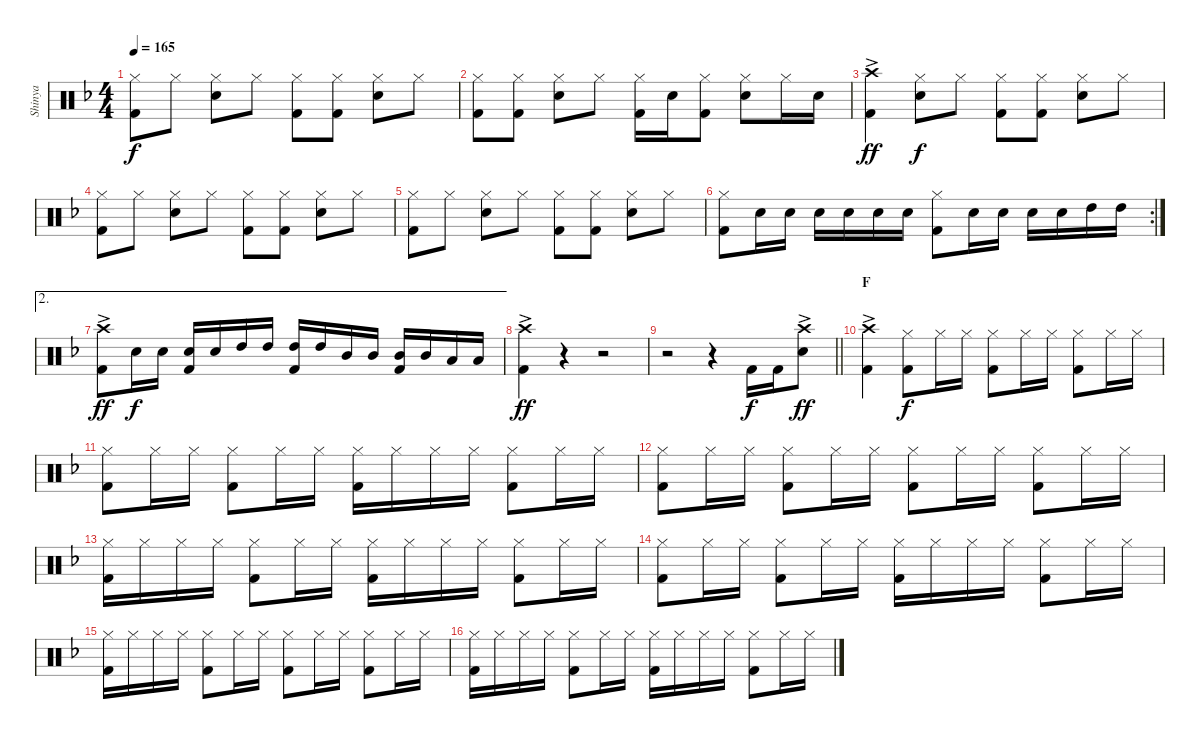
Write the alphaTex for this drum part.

\track ("Shinya" "Shinya") {instrument percussion}
\staff {score}
\articulation defaults
\ts (4 4)
\tempo 165
\clef neutral
\ks dminor
("Hi-Hat (closed)" "Kick (hit) 2").8{dy f} "Hi-Hat (closed)".8 ("Hi-Hat (closed)" "Snare (hit) 2").8 "Hi-Hat (closed)".8 ("Hi-Hat (closed)" "Kick (hit) 2").8 ("Hi-Hat (closed)" "Kick (hit) 2").8 ("Hi-Hat (closed)" "Snare (hit) 2").8 "Hi-Hat (closed)".8 |
("Hi-Hat (closed)" "Kick (hit) 2").8 ("Hi-Hat (closed)" "Kick (hit) 2").8 ("Hi-Hat (closed)" "Snare (hit) 2").8 "Hi-Hat (closed)".8 ("Hi-Hat (closed)" "Kick (hit) 2").16 "Snare (hit) 2".16 ("Hi-Hat (closed)" "Kick (hit) 2").8 ("Hi-Hat (closed)" "Snare (hit) 2").8 "Hi-Hat (closed)".16 "Snare (hit) 2".16 |
("Crash high (hit)"{ac} "Kick (hit) 2").4{dy ff} ("Hi-Hat (closed)" "Snare (hit) 2").8{dy f} "Hi-Hat (closed)".8 ("Hi-Hat (closed)" "Kick (hit) 2").8 ("Hi-Hat (closed)" "Kick (hit) 2").8 ("Hi-Hat (closed)" "Snare (hit) 2").8 "Hi-Hat (closed)".8 |
("Hi-Hat (closed)" "Kick (hit) 2").8 "Hi-Hat (closed)".8 ("Hi-Hat (closed)" "Snare (hit) 2").8 "Hi-Hat (closed)".8 ("Hi-Hat (closed)" "Kick (hit) 2").8 ("Hi-Hat (closed)" "Kick (hit) 2").8 ("Hi-Hat (closed)" "Snare (hit) 2").8 "Hi-Hat (closed)".8 |
("Hi-Hat (closed)" "Kick (hit) 2").8 "Hi-Hat (closed)".8 ("Hi-Hat (closed)" "Snare (hit) 2").8 "Hi-Hat (closed)".8 ("Hi-Hat (closed)" "Kick (hit) 2").8 ("Hi-Hat (closed)" "Kick (hit) 2").8 ("Hi-Hat (closed)" "Snare (hit) 2").8 "Hi-Hat (closed)".8 |
\rc 2
("Hi-Hat (closed)" "Kick (hit) 2").8 "Snare (hit) 2".16 "Snare (hit) 2".16 "Snare (hit) 2".16 "Snare (hit) 2".16 "Snare (hit) 2".16 "Snare (hit) 2".16 ("Hi-Hat (closed)" "Kick (hit) 2").8 "Snare (hit) 2".16 "Snare (hit) 2".16 "Snare (hit) 2".16 "Snare (hit) 2".16 "High Tom (hit)".16 "High Tom (hit)".16 |
\ae 2
("Crash high (hit)"{ac} "Kick (hit) 2").8{dy ff} "Snare (hit) 2".16{dy f} "Snare (hit) 2".16 ("Snare (hit) 2" "Kick (hit) 2").16 "Snare (hit) 2".16 "High Tom (hit)".16 "High Tom (hit)".16 ("High Tom (hit)" "Kick (hit) 2").16 "High Tom (hit)".16 "Mid Tom (hit)".16 "Mid Tom (hit)".16 ("Mid Tom (hit)" "Kick (hit) 2").16 "Mid Tom (hit)".16 "Low Tom (hit)".16 "Low Tom (hit)".16 |
("Crash high (hit)"{ac} "Kick (hit) 2").4{dy ff} r.4 r.2 |
\barLineRight lightlight
r.2 r.4 "Kick (hit) 2".16{dy f} "Kick (hit) 2".16 ("Crash high (hit)"{ac} "Snare (hit) 2").8{dy ff} |
\section ("" "F")
("Crash high (hit)"{ac} "Kick (hit) 2").4 ("Hi-Hat (closed)" "Kick (hit) 2").8{dy f} "Hi-Hat (closed)".16 "Hi-Hat (closed)".16 ("Hi-Hat (closed)" "Kick (hit) 2").8 "Hi-Hat (closed)".16 "Hi-Hat (closed)".16 ("Hi-Hat (closed)" "Kick (hit) 2").8 "Hi-Hat (closed)".16 "Hi-Hat (closed)".16 |
("Hi-Hat (closed)" "Kick (hit) 2").8 "Hi-Hat (closed)".16 "Hi-Hat (closed)".16 ("Hi-Hat (closed)" "Kick (hit) 2").8 "Hi-Hat (closed)".16 "Hi-Hat (closed)".16 ("Hi-Hat (closed)" "Kick (hit) 2").16 "Hi-Hat (closed)".16 "Hi-Hat (closed)".16 "Hi-Hat (closed)".16 ("Hi-Hat (closed)" "Kick (hit) 2").8 "Hi-Hat (closed)".16 "Hi-Hat (closed)".16 |
("Hi-Hat (closed)" "Kick (hit) 2").8 "Hi-Hat (closed)".16 "Hi-Hat (closed)".16 ("Hi-Hat (closed)" "Kick (hit) 2").8 "Hi-Hat (closed)".16 "Hi-Hat (closed)".16 ("Hi-Hat (closed)" "Kick (hit) 2").8 "Hi-Hat (closed)".16 "Hi-Hat (closed)".16 ("Hi-Hat (closed)" "Kick (hit) 2").8 "Hi-Hat (closed)".16 "Hi-Hat (closed)".16 |
("Hi-Hat (closed)" "Kick (hit) 2").16 "Hi-Hat (closed)".16 "Hi-Hat (closed)".16 "Hi-Hat (closed)".16 ("Hi-Hat (closed)" "Kick (hit) 2").8 "Hi-Hat (closed)".16 "Hi-Hat (closed)".16 ("Hi-Hat (closed)" "Kick (hit) 2").16 "Hi-Hat (closed)".16 "Hi-Hat (closed)".16 "Hi-Hat (closed)".16 ("Hi-Hat (closed)" "Kick (hit) 2").8 "Hi-Hat (closed)".16 "Hi-Hat (closed)".16 |
("Hi-Hat (closed)" "Kick (hit) 2").8 "Hi-Hat (closed)".16 "Hi-Hat (closed)".16 ("Hi-Hat (closed)" "Kick (hit) 2").8 "Hi-Hat (closed)".16 "Hi-Hat (closed)".16 ("Hi-Hat (closed)" "Kick (hit) 2").16 "Hi-Hat (closed)".16 "Hi-Hat (closed)".16 "Hi-Hat (closed)".16 ("Hi-Hat (closed)" "Kick (hit) 2").8 "Hi-Hat (closed)".16 "Hi-Hat (closed)".16 |
("Hi-Hat (closed)" "Kick (hit) 2").16 "Hi-Hat (closed)".16 "Hi-Hat (closed)".16 "Hi-Hat (closed)".16 ("Hi-Hat (closed)" "Kick (hit) 2").8 "Hi-Hat (closed)".16 "Hi-Hat (closed)".16 ("Hi-Hat (closed)" "Kick (hit) 2").8 "Hi-Hat (closed)".16 "Hi-Hat (closed)".16 ("Hi-Hat (closed)" "Kick (hit) 2").8 "Hi-Hat (closed)".16 "Hi-Hat (closed)".16 |
("Hi-Hat (closed)" "Kick (hit) 2").16 "Hi-Hat (closed)".16 "Hi-Hat (closed)".16 "Hi-Hat (closed)".16 ("Hi-Hat (closed)" "Kick (hit) 2").8 "Hi-Hat (closed)".16 "Hi-Hat (closed)".16 ("Hi-Hat (closed)" "Kick (hit) 2").16 "Hi-Hat (closed)".16 "Hi-Hat (closed)".16 "Hi-Hat (closed)".16 ("Hi-Hat (closed)" "Kick (hit) 2").8 "Hi-Hat (closed)".16 "Hi-Hat (closed)".16
